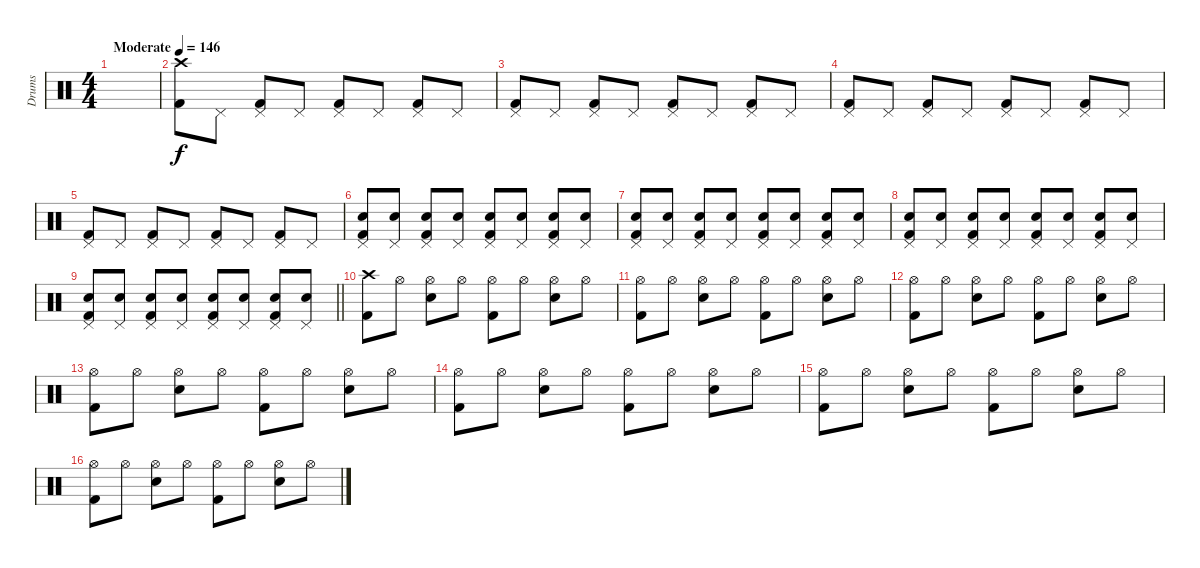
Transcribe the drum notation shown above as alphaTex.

\track ("Drums" "Drums") {instrument percussion}
\staff {score}
\articulation defaults
\ts (4 4)
\tempo (146 "Moderate")
\clef neutral
\ks c
|
("Crash high (hit)" "Kick (hit) 2").8 "Pedal Hi-Hat (hit)".8 ("Pedal Hi-Hat (hit)" "Kick (hit) 2").8 "Pedal Hi-Hat (hit)".8 ("Pedal Hi-Hat (hit)" "Kick (hit) 2").8 "Pedal Hi-Hat (hit)".8 ("Pedal Hi-Hat (hit)" "Kick (hit) 2").8 "Pedal Hi-Hat (hit)".8 |
("Pedal Hi-Hat (hit)" "Kick (hit) 2").8 "Pedal Hi-Hat (hit)".8 ("Pedal Hi-Hat (hit)" "Kick (hit) 2").8 "Pedal Hi-Hat (hit)".8 ("Pedal Hi-Hat (hit)" "Kick (hit) 2").8 "Pedal Hi-Hat (hit)".8 ("Pedal Hi-Hat (hit)" "Kick (hit) 2").8 "Pedal Hi-Hat (hit)".8 |
("Pedal Hi-Hat (hit)" "Kick (hit) 2").8 "Pedal Hi-Hat (hit)".8 ("Pedal Hi-Hat (hit)" "Kick (hit) 2").8 "Pedal Hi-Hat (hit)".8 ("Pedal Hi-Hat (hit)" "Kick (hit) 2").8 "Pedal Hi-Hat (hit)".8 ("Pedal Hi-Hat (hit)" "Kick (hit) 2").8 "Pedal Hi-Hat (hit)".8 |
("Pedal Hi-Hat (hit)" "Kick (hit) 2").8 "Pedal Hi-Hat (hit)".8 ("Pedal Hi-Hat (hit)" "Kick (hit) 2").8 "Pedal Hi-Hat (hit)".8 ("Pedal Hi-Hat (hit)" "Kick (hit) 2").8 "Pedal Hi-Hat (hit)".8 ("Pedal Hi-Hat (hit)" "Kick (hit) 2").8 "Pedal Hi-Hat (hit)".8 |
("Pedal Hi-Hat (hit)" "Snare (hit) 2" "Kick (hit) 2").8 ("Pedal Hi-Hat (hit)" "Snare (hit) 2").8 ("Pedal Hi-Hat (hit)" "Snare (hit) 2" "Kick (hit) 2").8 ("Pedal Hi-Hat (hit)" "Snare (hit) 2").8 ("Pedal Hi-Hat (hit)" "Snare (hit) 2" "Kick (hit) 2").8 ("Pedal Hi-Hat (hit)" "Snare (hit) 2").8 ("Pedal Hi-Hat (hit)" "Snare (hit) 2" "Kick (hit) 2").8 ("Pedal Hi-Hat (hit)" "Snare (hit) 2").8 |
("Pedal Hi-Hat (hit)" "Snare (hit) 2" "Kick (hit) 2").8 ("Pedal Hi-Hat (hit)" "Snare (hit) 2").8 ("Pedal Hi-Hat (hit)" "Snare (hit) 2" "Kick (hit) 2").8 ("Pedal Hi-Hat (hit)" "Snare (hit) 2").8 ("Pedal Hi-Hat (hit)" "Snare (hit) 2" "Kick (hit) 2").8 ("Pedal Hi-Hat (hit)" "Snare (hit) 2").8 ("Pedal Hi-Hat (hit)" "Snare (hit) 2" "Kick (hit) 2").8 ("Pedal Hi-Hat (hit)" "Snare (hit) 2").8 |
("Pedal Hi-Hat (hit)" "Snare (hit) 2" "Kick (hit) 2").8 ("Pedal Hi-Hat (hit)" "Snare (hit) 2").8 ("Pedal Hi-Hat (hit)" "Snare (hit) 2" "Kick (hit) 2").8 ("Pedal Hi-Hat (hit)" "Snare (hit) 2").8 ("Pedal Hi-Hat (hit)" "Snare (hit) 2" "Kick (hit) 2").8 ("Pedal Hi-Hat (hit)" "Snare (hit) 2").8 ("Pedal Hi-Hat (hit)" "Snare (hit) 2" "Kick (hit) 2").8 ("Pedal Hi-Hat (hit)" "Snare (hit) 2").8 |
\barLineRight lightlight
("Pedal Hi-Hat (hit)" "Snare (hit) 2" "Kick (hit) 2").8 ("Pedal Hi-Hat (hit)" "Snare (hit) 2").8 ("Pedal Hi-Hat (hit)" "Snare (hit) 2" "Kick (hit) 2").8 ("Pedal Hi-Hat (hit)" "Snare (hit) 2").8 ("Pedal Hi-Hat (hit)" "Snare (hit) 2" "Kick (hit) 2").8 ("Pedal Hi-Hat (hit)" "Snare (hit) 2").8 ("Pedal Hi-Hat (hit)" "Snare (hit) 2" "Kick (hit) 2").8 ("Pedal Hi-Hat (hit)" "Snare (hit) 2").8 |
("Crash high (hit)" "Kick (hit) 2").8 "Hi-Hat (open)".8 ("Hi-Hat (open)" "Snare (hit) 2").8 "Hi-Hat (open)".8 ("Hi-Hat (open)" "Kick (hit) 2").8 "Hi-Hat (open)".8 ("Hi-Hat (open)" "Snare (hit) 2").8 "Hi-Hat (open)".8 |
("Hi-Hat (open)" "Kick (hit) 2").8 "Hi-Hat (open)".8 ("Hi-Hat (open)" "Snare (hit) 2").8 "Hi-Hat (open)".8 ("Hi-Hat (open)" "Kick (hit) 2").8 "Hi-Hat (open)".8 ("Hi-Hat (open)" "Snare (hit) 2").8 "Hi-Hat (open)".8 |
("Hi-Hat (open)" "Kick (hit) 2").8 "Hi-Hat (open)".8 ("Hi-Hat (open)" "Snare (hit) 2").8 "Hi-Hat (open)".8 ("Hi-Hat (open)" "Kick (hit) 2").8 "Hi-Hat (open)".8 ("Hi-Hat (open)" "Snare (hit) 2").8 "Hi-Hat (open)".8 |
("Hi-Hat (open)" "Kick (hit) 2").8 "Hi-Hat (open)".8 ("Hi-Hat (open)" "Snare (hit) 2").8 "Hi-Hat (open)".8 ("Hi-Hat (open)" "Kick (hit) 2").8 "Hi-Hat (open)".8 ("Hi-Hat (open)" "Snare (hit) 2").8 "Hi-Hat (open)".8 |
("Hi-Hat (open)" "Kick (hit) 2").8 "Hi-Hat (open)".8 ("Hi-Hat (open)" "Snare (hit) 2").8 "Hi-Hat (open)".8 ("Hi-Hat (open)" "Kick (hit) 2").8 "Hi-Hat (open)".8 ("Hi-Hat (open)" "Snare (hit) 2").8 "Hi-Hat (open)".8 |
("Hi-Hat (open)" "Kick (hit) 2").8 "Hi-Hat (open)".8 ("Hi-Hat (open)" "Snare (hit) 2").8 "Hi-Hat (open)".8 ("Hi-Hat (open)" "Kick (hit) 2").8 "Hi-Hat (open)".8 ("Hi-Hat (open)" "Snare (hit) 2").8 "Hi-Hat (open)".8 |
("Hi-Hat (open)" "Kick (hit) 2").8 "Hi-Hat (open)".8 ("Hi-Hat (open)" "Snare (hit) 2").8 "Hi-Hat (open)".8 ("Hi-Hat (open)" "Kick (hit) 2").8 "Hi-Hat (open)".8 ("Hi-Hat (open)" "Snare (hit) 2").8 "Hi-Hat (open)".8
